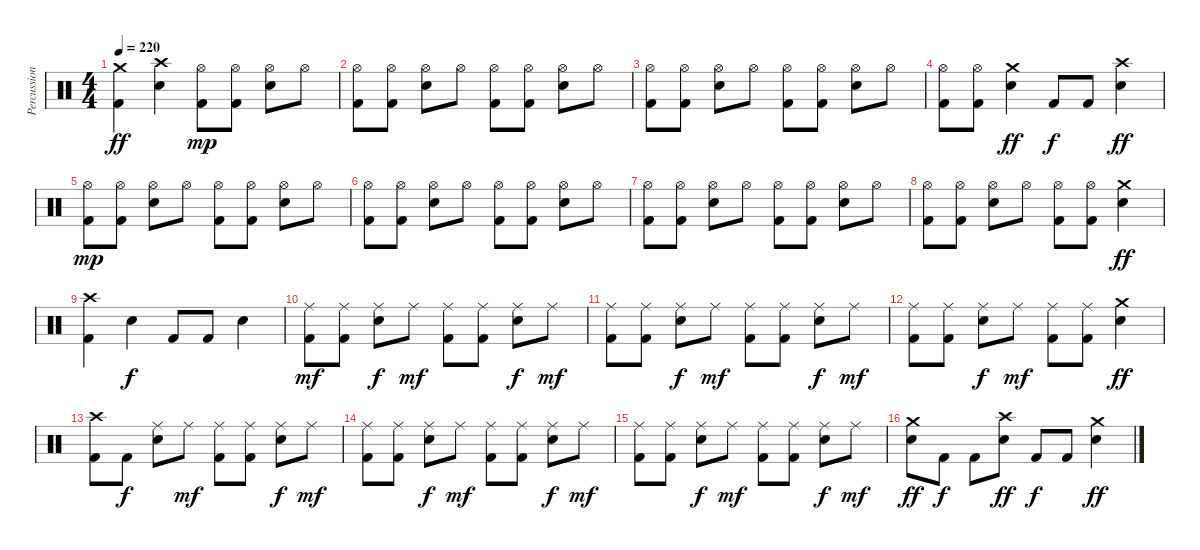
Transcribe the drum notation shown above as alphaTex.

\track ("Percussion" "Percussion") {instrument percussion}
\staff {score}
\articulation defaults
\ts (4 4)
\tempo 220
\clef neutral
\ks c
("Crash medium (hit)" "Kick (hit) 2").4{dy ff} ("Crash high (hit)" "Electric Snare (hit)").4 ("Hi-Hat (open)" "Kick (hit) 2").8{dy mp} ("Hi-Hat (open)" "Kick (hit) 2").8 ("Hi-Hat (open)" "Electric Snare (hit)").8 "Hi-Hat (open)".8 |
("Hi-Hat (open)" "Kick (hit) 2").8 ("Hi-Hat (open)" "Kick (hit) 2").8 ("Hi-Hat (open)" "Electric Snare (hit)").8 "Hi-Hat (open)".8 ("Hi-Hat (open)" "Kick (hit) 2").8 ("Hi-Hat (open)" "Kick (hit) 2").8 ("Hi-Hat (open)" "Electric Snare (hit)").8 "Hi-Hat (open)".8 |
("Hi-Hat (open)" "Kick (hit) 2").8 ("Hi-Hat (open)" "Kick (hit) 2").8 ("Hi-Hat (open)" "Electric Snare (hit)").8 "Hi-Hat (open)".8 ("Hi-Hat (open)" "Kick (hit) 2").8 ("Hi-Hat (open)" "Kick (hit) 2").8 ("Hi-Hat (open)" "Electric Snare (hit)").8 "Hi-Hat (open)".8 |
("Hi-Hat (open)" "Kick (hit) 2").8 ("Hi-Hat (open)" "Kick (hit) 2").8 ("Crash medium (hit)" "Electric Snare (hit)").4{dy ff} "Kick (hit) 2".8{dy f} "Kick (hit) 2".8 ("Crash high (hit)" "Electric Snare (hit)").4{dy ff} |
("Hi-Hat (open)" "Kick (hit) 2").8{dy mp} ("Hi-Hat (open)" "Kick (hit) 2").8 ("Hi-Hat (open)" "Electric Snare (hit)").8 "Hi-Hat (open)".8 ("Hi-Hat (open)" "Kick (hit) 2").8 ("Hi-Hat (open)" "Kick (hit) 2").8 ("Hi-Hat (open)" "Electric Snare (hit)").8 "Hi-Hat (open)".8 |
("Hi-Hat (open)" "Kick (hit) 2").8 ("Hi-Hat (open)" "Kick (hit) 2").8 ("Hi-Hat (open)" "Electric Snare (hit)").8 "Hi-Hat (open)".8 ("Hi-Hat (open)" "Kick (hit) 2").8 ("Hi-Hat (open)" "Kick (hit) 2").8 ("Hi-Hat (open)" "Electric Snare (hit)").8 "Hi-Hat (open)".8 |
("Hi-Hat (open)" "Kick (hit) 2").8 ("Hi-Hat (open)" "Kick (hit) 2").8 ("Hi-Hat (open)" "Electric Snare (hit)").8 "Hi-Hat (open)".8 ("Hi-Hat (open)" "Kick (hit) 2").8 ("Hi-Hat (open)" "Kick (hit) 2").8 ("Hi-Hat (open)" "Electric Snare (hit)").8 "Hi-Hat (open)".8 |
("Hi-Hat (open)" "Kick (hit) 2").8 ("Hi-Hat (open)" "Kick (hit) 2").8 ("Hi-Hat (open)" "Electric Snare (hit)").8 "Hi-Hat (open)".8 ("Hi-Hat (open)" "Kick (hit) 2").8 ("Hi-Hat (open)" "Kick (hit) 2").8 ("Crash medium (hit)" "Electric Snare (hit)").4{dy ff} |
("Crash high (hit)" "Kick (hit) 2").4 "Electric Snare (hit)".4{dy f} "Kick (hit) 2".8 "Kick (hit) 2".8 "Electric Snare (hit)".4 |
("Ride (middle)" "Kick (hit) 2").8{dy mf} ("Ride (middle)" "Kick (hit) 2").8 ("Ride (middle)" "Electric Snare (hit)").8{dy f} "Ride (middle)".8{dy mf} ("Ride (middle)" "Kick (hit) 2").8 ("Ride (middle)" "Kick (hit) 2").8 ("Ride (middle)" "Electric Snare (hit)").8{dy f} "Ride (middle)".8{dy mf} |
("Ride (middle)" "Kick (hit) 2").8 ("Ride (middle)" "Kick (hit) 2").8 ("Ride (middle)" "Electric Snare (hit)").8{dy f} "Ride (middle)".8{dy mf} ("Ride (middle)" "Kick (hit) 2").8 ("Ride (middle)" "Kick (hit) 2").8 ("Ride (middle)" "Electric Snare (hit)").8{dy f} "Ride (middle)".8{dy mf} |
("Ride (middle)" "Kick (hit) 2").8 ("Ride (middle)" "Kick (hit) 2").8 ("Ride (middle)" "Electric Snare (hit)").8{dy f} "Ride (middle)".8{dy mf} ("Ride (middle)" "Kick (hit) 2").8 ("Ride (middle)" "Kick (hit) 2").8 ("Crash medium (hit)" "Electric Snare (hit)").4{dy ff} |
("Crash high (hit)" "Kick (hit) 2").8 "Kick (hit) 2".8{dy f} ("Ride (middle)" "Electric Snare (hit)").8 "Ride (middle)".8{dy mf} ("Ride (middle)" "Kick (hit) 2").8 ("Ride (middle)" "Kick (hit) 2").8 ("Ride (middle)" "Electric Snare (hit)").8{dy f} "Ride (middle)".8{dy mf} |
("Ride (middle)" "Kick (hit) 2").8 ("Ride (middle)" "Kick (hit) 2").8 ("Ride (middle)" "Electric Snare (hit)").8{dy f} "Ride (middle)".8{dy mf} ("Ride (middle)" "Kick (hit) 2").8 ("Ride (middle)" "Kick (hit) 2").8 ("Ride (middle)" "Electric Snare (hit)").8{dy f} "Ride (middle)".8{dy mf} |
("Ride (middle)" "Kick (hit) 2").8 ("Ride (middle)" "Kick (hit) 2").8 ("Ride (middle)" "Electric Snare (hit)").8{dy f} "Ride (middle)".8{dy mf} ("Ride (middle)" "Kick (hit) 2").8 ("Ride (middle)" "Kick (hit) 2").8 ("Ride (middle)" "Electric Snare (hit)").8{dy f} "Ride (middle)".8{dy mf} |
("Crash medium (hit)" "Electric Snare (hit)").8{dy ff} "Kick (hit) 2".8{dy f} "Kick (hit) 2".8 ("Crash high (hit)" "Electric Snare (hit)").8{dy ff} "Kick (hit) 2".8{dy f} "Kick (hit) 2".8 ("Crash medium (hit)" "Electric Snare (hit)").4{dy ff}
